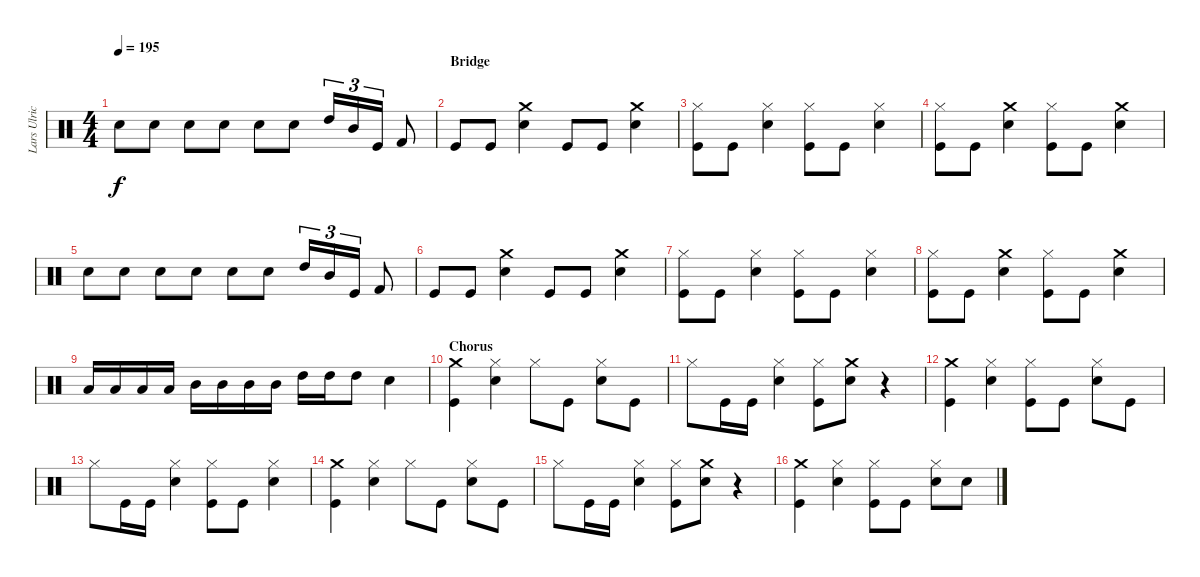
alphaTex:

\track ("Lars Ulrich (Drums)" "Lars Ulric") {instrument percussion}
\staff {score}
\articulation defaults
\ts (4 4)
\tempo 195
\clef neutral
\ks c "Snare (hit) 2".8{dy f} "Snare (hit) 2".8 "Snare (hit) 2".8 "Snare (hit) 2".8 "Snare (hit) 2".8 "Snare (hit) 2".8 "High Tom (hit)".16{tu (3 2)} "Mid Tom (hit)".16{tu (3 2)} "Kick (hit)".16{tu (3 2)} "Kick (hit) 2".8
|
\section ("" "Bridge")
"Kick (hit)".8 "Kick (hit)".8 ("Crash medium (hit)" "Snare (hit) 2").4 "Kick (hit)".8 "Kick (hit)".8 ("Crash medium (hit)" "Snare (hit) 2").4 |
("Kick (hit)" "Hi-Hat (closed)").8 "Kick (hit)".8 ("Snare (hit) 2" "Hi-Hat (closed)").4 ("Kick (hit)" "Hi-Hat (closed)").8 "Kick (hit)".8 ("Snare (hit) 2" "Hi-Hat (closed)").4 |
("Kick (hit)" "Hi-Hat (closed)").8 "Kick (hit)".8 ("Snare (hit) 2" "Crash medium (hit)").4 ("Kick (hit)" "Hi-Hat (closed)").8 "Kick (hit)".8 ("Crash medium (hit)" "Snare (hit) 2").4 |
"Snare (hit) 2".8 "Snare (hit) 2".8 "Snare (hit) 2".8 "Snare (hit) 2".8 "Snare (hit) 2".8 "Snare (hit) 2".8 "High Tom (hit)".16{tu (3 2)} "Mid Tom (hit)".16{tu (3 2)} "Kick (hit)".16{tu (3 2)} "Kick (hit) 2".8 |
"Kick (hit)".8 "Kick (hit)".8 ("Crash medium (hit)" "Snare (hit) 2").4 "Kick (hit)".8 "Kick (hit)".8 ("Crash medium (hit)" "Snare (hit) 2").4 |
("Kick (hit)" "Hi-Hat (closed)").8 "Kick (hit)".8 ("Snare (hit) 2" "Hi-Hat (closed)").4 ("Kick (hit)" "Hi-Hat (closed)").8 "Kick (hit)".8 ("Snare (hit) 2" "Hi-Hat (closed)").4 |
("Kick (hit)" "Hi-Hat (closed)").8 "Kick (hit)".8 ("Snare (hit) 2" "Crash medium (hit)").4 ("Kick (hit)" "Hi-Hat (closed)").8 "Kick (hit)".8 ("Crash medium (hit)" "Snare (hit) 2").4 |
"Low Tom (hit)".16 "Low Tom (hit)".16 "Low Tom (hit)".16 "Low Tom (hit)".16 "Mid Tom (hit)".16 "Mid Tom (hit)".16 "Mid Tom (hit)".16 "Mid Tom (hit)".16 "High Tom (hit)".16 "High Tom (hit)".16 "High Tom (hit)".8 "Snare (hit) 2".4 |
\section ("" "Chorus")
("Kick (hit)" "Crash medium (hit)").4 ("Hi-Hat (closed)" "Snare (hit) 2").4 "Hi-Hat (closed)".8 "Kick (hit)".8 ("Snare (hit) 2" "Hi-Hat (closed)").8 "Kick (hit)".8 |
"Hi-Hat (closed)".8 "Kick (hit)".16 "Kick (hit)".16 ("Snare (hit) 2" "Hi-Hat (closed)").4 ("Hi-Hat (closed)" "Kick (hit)").8 ("Crash medium (hit)" "Snare (hit) 2").8 r.4 |
("Kick (hit)" "Crash medium (hit)").4 ("Hi-Hat (closed)" "Snare (hit) 2").4 ("Hi-Hat (closed)" "Kick (hit)").8 "Kick (hit)".8 ("Snare (hit) 2" "Hi-Hat (closed)").8 "Kick (hit)".8 |
"Hi-Hat (closed)".8 "Kick (hit)".16 "Kick (hit)".16 ("Snare (hit) 2" "Hi-Hat (closed)").4 ("Hi-Hat (closed)" "Kick (hit)").8 "Kick (hit)".8 ("Snare (hit) 2" "Hi-Hat (closed)").4 |
("Kick (hit)" "Crash medium (hit)").4 ("Hi-Hat (closed)" "Snare (hit) 2").4 "Hi-Hat (closed)".8 "Kick (hit)".8 ("Snare (hit) 2" "Hi-Hat (closed)").8 "Kick (hit)".8 |
"Hi-Hat (closed)".8 "Kick (hit)".16 "Kick (hit)".16 ("Snare (hit) 2" "Hi-Hat (closed)").4 ("Hi-Hat (closed)" "Kick (hit)").8 ("Crash medium (hit)" "Snare (hit) 2").8 r.4 |
("Crash medium (hit)" "Kick (hit)").4 ("Snare (hit) 2" "Hi-Hat (closed)").4 ("Hi-Hat (closed)" "Kick (hit)").8 "Kick (hit)".8 ("Hi-Hat (closed)" "Snare (hit) 2").8 "Snare (hit) 2".8
